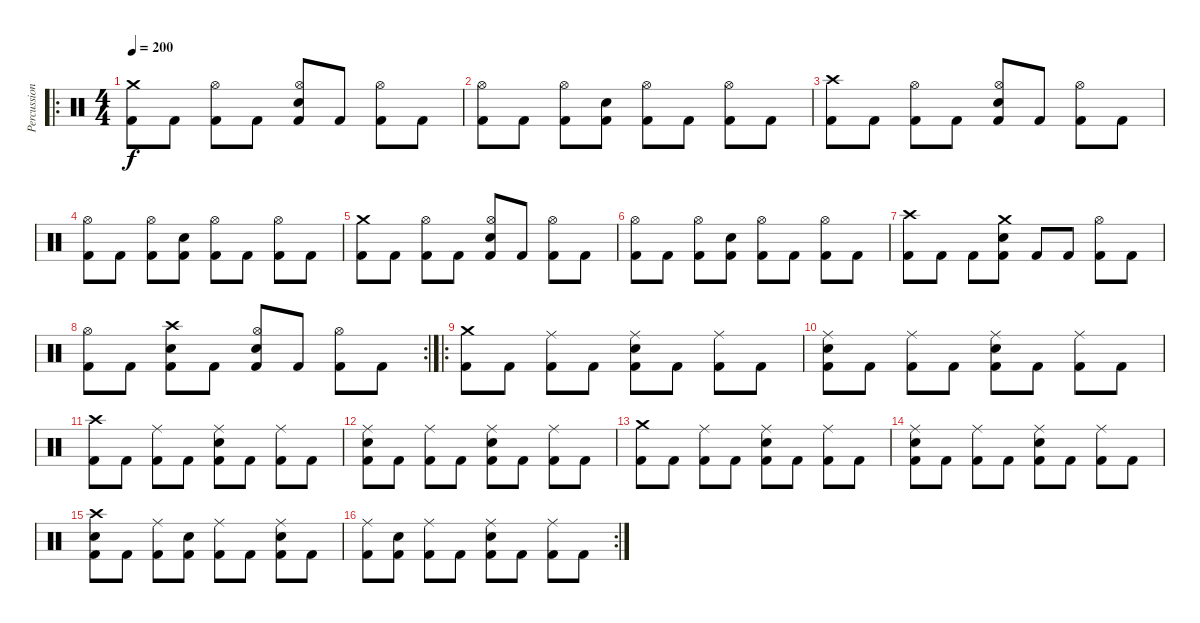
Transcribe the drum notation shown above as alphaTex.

\track ("Percussions" "Percussion") {instrument percussion}
\staff {score}
\articulation defaults
\ro
\ts (4 4)
\tempo 200
\clef neutral
\ks c
("Crash medium (hit)" "Kick (hit) 2").8{dy f} "Kick (hit) 2".8 ("Hi-Hat (open)" "Kick (hit) 2").8 "Kick (hit) 2".8 ("Hi-Hat (open)" "Electric Snare (hit)" "Kick (hit) 2").8 "Kick (hit) 2".8 ("Hi-Hat (open)" "Kick (hit) 2").8 "Kick (hit) 2".8 |
("Hi-Hat (open)" "Kick (hit) 2").8 "Kick (hit) 2".8 ("Hi-Hat (open)" "Kick (hit) 2").8 ("Electric Snare (hit)" "Kick (hit) 2").8 ("Hi-Hat (open)" "Kick (hit) 2").8 "Kick (hit) 2".8 ("Hi-Hat (open)" "Kick (hit) 2").8 "Kick (hit) 2".8 |
("Crash high (hit)" "Kick (hit) 2").8 "Kick (hit) 2".8 ("Hi-Hat (open)" "Kick (hit) 2").8 "Kick (hit) 2".8 ("Hi-Hat (open)" "Electric Snare (hit)" "Kick (hit) 2").8 "Kick (hit) 2".8 ("Hi-Hat (open)" "Kick (hit) 2").8 "Kick (hit) 2".8 |
("Hi-Hat (open)" "Kick (hit) 2").8 "Kick (hit) 2".8 ("Hi-Hat (open)" "Kick (hit) 2").8 ("Electric Snare (hit)" "Kick (hit) 2").8 ("Hi-Hat (open)" "Kick (hit) 2").8 "Kick (hit) 2".8 ("Hi-Hat (open)" "Kick (hit) 2").8 "Kick (hit) 2".8 |
("Crash medium (hit)" "Kick (hit) 2").8 "Kick (hit) 2".8 ("Hi-Hat (open)" "Kick (hit) 2").8 "Kick (hit) 2".8 ("Hi-Hat (open)" "Electric Snare (hit)" "Kick (hit) 2").8 "Kick (hit) 2".8 ("Hi-Hat (open)" "Kick (hit) 2").8 "Kick (hit) 2".8 |
("Hi-Hat (open)" "Kick (hit) 2").8 "Kick (hit) 2".8 ("Hi-Hat (open)" "Kick (hit) 2").8 ("Electric Snare (hit)" "Kick (hit) 2").8 ("Hi-Hat (open)" "Kick (hit) 2").8 "Kick (hit) 2".8 ("Hi-Hat (open)" "Kick (hit) 2").8 "Kick (hit) 2".8 |
("Crash high (hit)" "Kick (hit) 2").8 "Kick (hit) 2".8 "Kick (hit) 2".8 ("Crash medium (hit)" "Electric Snare (hit)" "Kick (hit) 2").8 "Kick (hit) 2".8 "Kick (hit) 2".8 ("Hi-Hat (open)" "Kick (hit) 2").8 "Kick (hit) 2".8 |
\rc 2
("Hi-Hat (open)" "Kick (hit) 2").8 "Kick (hit) 2".8 ("Crash high (hit)" "Electric Snare (hit)" "Kick (hit) 2").8 "Kick (hit) 2".8 ("Hi-Hat (open)" "Electric Snare (hit)" "Kick (hit) 2").8 "Kick (hit) 2".8 ("Hi-Hat (open)" "Kick (hit) 2").8 "Kick (hit) 2".8 |
\ro
("Crash medium (hit)" "Kick (hit) 2").8 "Kick (hit) 2".8 ("Ride (middle)" "Kick (hit) 2").8 "Kick (hit) 2".8 ("Ride (middle)" "Electric Snare (hit)" "Kick (hit) 2").8 "Kick (hit) 2".8 ("Ride (middle)" "Kick (hit) 2").8 "Kick (hit) 2".8 |
("Ride (middle)" "Electric Snare (hit)" "Kick (hit) 2").8 "Kick (hit) 2".8 ("Ride (middle)" "Kick (hit) 2").8 "Kick (hit) 2".8 ("Ride (middle)" "Electric Snare (hit)" "Kick (hit) 2").8 "Kick (hit) 2".8 ("Ride (middle)" "Kick (hit) 2").8 "Kick (hit) 2".8 |
("Crash high (hit)" "Kick (hit) 2").8 "Kick (hit) 2".8 ("Ride (middle)" "Kick (hit) 2").8 "Kick (hit) 2".8 ("Ride (middle)" "Electric Snare (hit)" "Kick (hit) 2").8 "Kick (hit) 2".8 ("Ride (middle)" "Kick (hit) 2").8 "Kick (hit) 2".8 |
("Ride (middle)" "Electric Snare (hit)" "Kick (hit) 2").8 "Kick (hit) 2".8 ("Ride (middle)" "Kick (hit) 2").8 "Kick (hit) 2".8 ("Ride (middle)" "Electric Snare (hit)" "Kick (hit) 2").8 "Kick (hit) 2".8 ("Ride (middle)" "Kick (hit) 2").8 "Kick (hit) 2".8 |
("Crash medium (hit)" "Kick (hit) 2").8 "Kick (hit) 2".8 ("Ride (middle)" "Kick (hit) 2").8 "Kick (hit) 2".8 ("Ride (middle)" "Electric Snare (hit)" "Kick (hit) 2").8 "Kick (hit) 2".8 ("Ride (middle)" "Kick (hit) 2").8 "Kick (hit) 2".8 |
("Ride (middle)" "Electric Snare (hit)" "Kick (hit) 2").8 "Kick (hit) 2".8 ("Ride (middle)" "Kick (hit) 2").8 "Kick (hit) 2".8 ("Ride (middle)" "Electric Snare (hit)" "Kick (hit) 2").8 "Kick (hit) 2".8 ("Ride (middle)" "Kick (hit) 2").8 "Kick (hit) 2".8 |
("Crash high (hit)" "Electric Snare (hit)" "Kick (hit) 2").8 "Kick (hit) 2".8 ("Ride (middle)" "Kick (hit) 2").8 ("Electric Snare (hit)" "Kick (hit) 2").8 ("Ride (middle)" "Kick (hit) 2").8 "Kick (hit) 2".8 ("Ride (middle)" "Electric Snare (hit)" "Kick (hit) 2").8 "Kick (hit) 2".8 |
\rc 2
("Ride (middle)" "Kick (hit) 2").8 ("Electric Snare (hit)" "Kick (hit) 2").8 ("Ride (middle)" "Kick (hit) 2").8 "Kick (hit) 2".8 ("Ride (middle)" "Electric Snare (hit)" "Kick (hit) 2").8 "Kick (hit) 2".8 ("Ride (middle)" "Kick (hit) 2").8 "Kick (hit) 2".8
